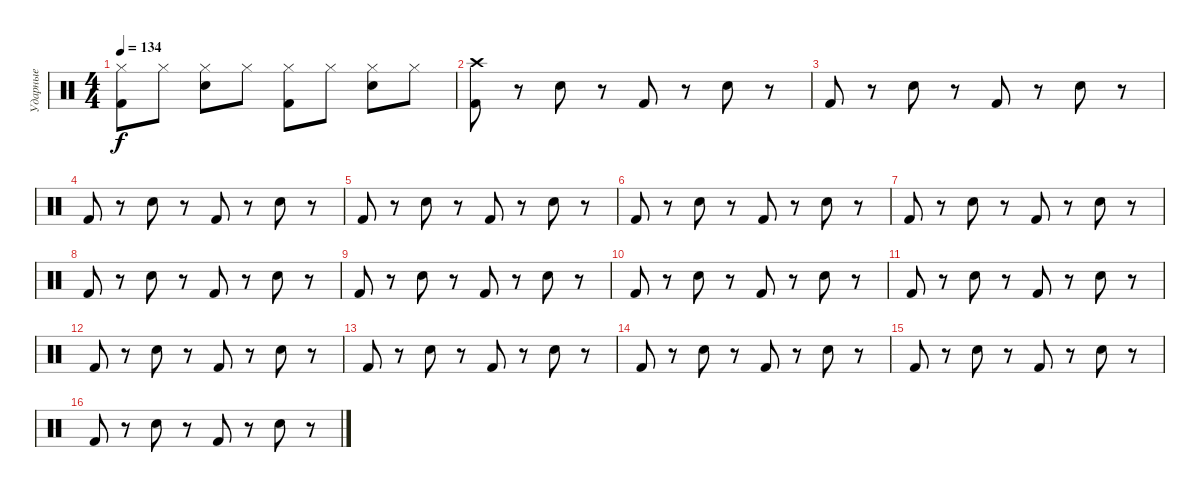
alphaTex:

\track ("Ударные" "Ударные") {instrument percussion}
\staff {score}
\articulation defaults
\ts (4 4)
\tempo 134
\clef neutral
\ks c
("Hi-Hat (closed)" "Kick (hit) 2").8{dy f} "Hi-Hat (closed)".8 ("Hi-Hat (closed)" "Snare (hit) 2").8 "Hi-Hat (closed)".8 ("Hi-Hat (closed)" "Kick (hit) 2").8 "Hi-Hat (closed)".8 ("Hi-Hat (closed)" "Snare (hit) 2").8 "Hi-Hat (closed)".8 |
("Crash high (hit)" "Kick (hit) 2").8 r.8 "Snare (hit) 2".8 r.8 "Kick (hit) 2".8 r.8 "Snare (hit) 2".8 r.8 |
"Kick (hit) 2".8 r.8 "Snare (hit) 2".8 r.8 "Kick (hit) 2".8 r.8 "Snare (hit) 2".8 r.8 |
"Kick (hit) 2".8 r.8 "Snare (hit) 2".8 r.8 "Kick (hit) 2".8 r.8 "Snare (hit) 2".8 r.8 |
"Kick (hit) 2".8 r.8 "Snare (hit) 2".8 r.8 "Kick (hit) 2".8 r.8 "Snare (hit) 2".8 r.8 |
"Kick (hit) 2".8 r.8 "Snare (hit) 2".8 r.8 "Kick (hit) 2".8 r.8 "Snare (hit) 2".8 r.8 |
"Kick (hit) 2".8 r.8 "Snare (hit) 2".8 r.8 "Kick (hit) 2".8 r.8 "Snare (hit) 2".8 r.8 |
"Kick (hit) 2".8 r.8 "Snare (hit) 2".8 r.8 "Kick (hit) 2".8 r.8 "Snare (hit) 2".8 r.8 |
"Kick (hit) 2".8 r.8 "Snare (hit) 2".8 r.8 "Kick (hit) 2".8 r.8 "Snare (hit) 2".8 r.8 |
"Kick (hit) 2".8 r.8 "Snare (hit) 2".8 r.8 "Kick (hit) 2".8 r.8 "Snare (hit) 2".8 r.8 |
"Kick (hit) 2".8 r.8 "Snare (hit) 2".8 r.8 "Kick (hit) 2".8 r.8 "Snare (hit) 2".8 r.8 |
"Kick (hit) 2".8 r.8 "Snare (hit) 2".8 r.8 "Kick (hit) 2".8 r.8 "Snare (hit) 2".8 r.8 |
"Kick (hit) 2".8 r.8 "Snare (hit) 2".8 r.8 "Kick (hit) 2".8 r.8 "Snare (hit) 2".8 r.8 |
"Kick (hit) 2".8 r.8 "Snare (hit) 2".8 r.8 "Kick (hit) 2".8 r.8 "Snare (hit) 2".8 r.8 |
"Kick (hit) 2".8 r.8 "Snare (hit) 2".8 r.8 "Kick (hit) 2".8 r.8 "Snare (hit) 2".8 r.8 |
"Kick (hit) 2".8 r.8 "Snare (hit) 2".8 r.8 "Kick (hit) 2".8 r.8 "Snare (hit) 2".8 r.8
